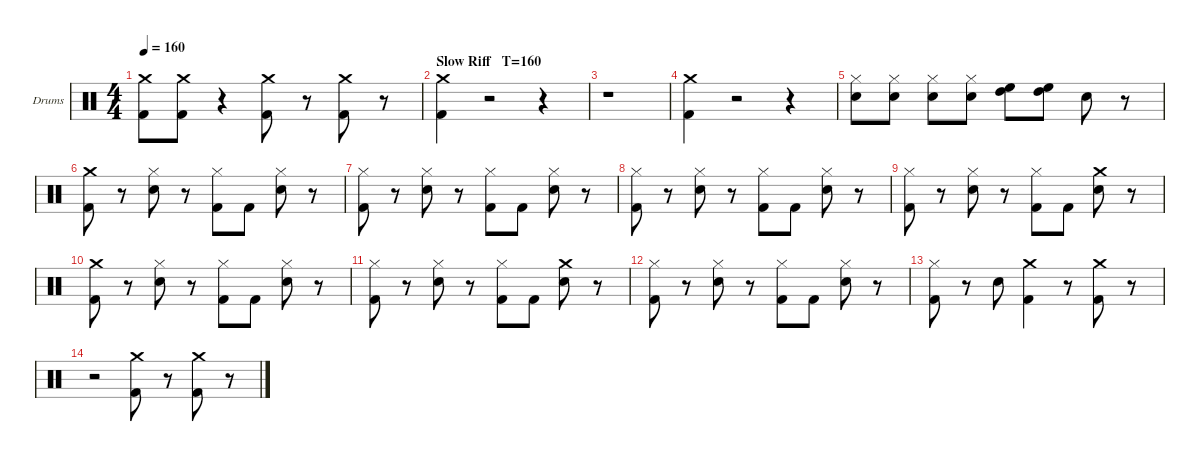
\hideDynamics
\bracketExtendMode nobrackets
\firstSystemTrackNameOrientation horizontal
\otherSystemsTrackNameOrientation horizontal
\track ("Drumkit" "Drums") {instrument percussion}
\staff {score}
\articulation defaults
\ts (4 4)
\tempo 160
\clef neutral
\ks c
("Kick (hit) 2" "Crash medium (hit)").8{dy f} ("Kick (hit) 2" "Crash medium (hit)").8 r.4 ("Kick (hit) 2" "Crash medium (hit)").8 r.8 ("Kick (hit) 2" "Crash medium (hit)").8 r.8 |
\section ("" "Slow Riff   T=160")
("Crash medium (hit)" "Kick (hit) 2").4 r.2 r.4 |
r.1 |
("Kick (hit) 2" "Crash medium (hit)").4 r.2 r.4 |
("Hi-Hat (closed)" "Snare (hit) 2").8 ("Hi-Hat (closed)" "Snare (hit) 2").8 ("Hi-Hat (closed)" "Snare (hit) 2").8 ("Hi-Hat (closed)" "Snare (hit) 2").8 ("High Floor Tom (hit)" "High Tom (hit)").8 ("High Tom (hit)" "High Floor Tom (hit)").8 "Snare (hit) 2".8 r.8 |
("Kick (hit) 2" "Crash medium (hit)").8 r.8 ("Hi-Hat (closed)" "Snare (hit) 2").8 r.8 ("Hi-Hat (closed)" "Kick (hit) 2").8 "Kick (hit) 2".8 ("Hi-Hat (closed)" "Snare (hit) 2").8 r.8 |
("Kick (hit) 2" "Hi-Hat (closed)").8 r.8 ("Snare (hit) 2" "Hi-Hat (closed)").8 r.8 ("Kick (hit) 2" "Hi-Hat (closed)").8 "Kick (hit) 2".8 ("Snare (hit) 2" "Hi-Hat (closed)").8 r.8 |
("Kick (hit) 2" "Hi-Hat (closed)").8 r.8 ("Snare (hit) 2" "Hi-Hat (closed)").8 r.8 ("Kick (hit) 2" "Hi-Hat (closed)").8 "Kick (hit) 2".8 ("Snare (hit) 2" "Hi-Hat (closed)").8 r.8 |
("Kick (hit) 2" "Hi-Hat (closed)").8 r.8 ("Snare (hit) 2" "Hi-Hat (closed)").8 r.8 ("Kick (hit) 2" "Hi-Hat (closed)").8 "Kick (hit) 2".8 ("Snare (hit) 2" "Crash medium (hit)").8 r.8 |
("Kick (hit) 2" "Crash medium (hit)").8 r.8 ("Hi-Hat (closed)" "Snare (hit) 2").8 r.8 ("Hi-Hat (closed)" "Kick (hit) 2").8 "Kick (hit) 2".8 ("Snare (hit) 2" "Hi-Hat (closed)").8 r.8 |
("Kick (hit) 2" "Hi-Hat (closed)").8 r.8 ("Snare (hit) 2" "Hi-Hat (closed)").8 r.8 ("Kick (hit) 2" "Hi-Hat (closed)").8 "Kick (hit) 2".8 ("Snare (hit) 2" "Crash medium (hit)").8 r.8 |
("Kick (hit) 2" "Hi-Hat (closed)").8 r.8 ("Snare (hit) 2" "Hi-Hat (closed)").8 r.8 ("Kick (hit) 2" "Hi-Hat (closed)").8 "Kick (hit) 2".8 ("Snare (hit) 2" "Hi-Hat (closed)").8 r.8 |
("Kick (hit) 2" "Hi-Hat (closed)").8 r.8 "Snare (hit) 2".8 ("Crash medium (hit)" "Kick (hit) 2").4 r.8 ("Crash medium (hit)" "Kick (hit) 2").8 r.8 |
r.2 ("Kick (hit) 2" "Crash medium (hit)").8 r.8 ("Kick (hit) 2" "Crash medium (hit)").8 r.8
